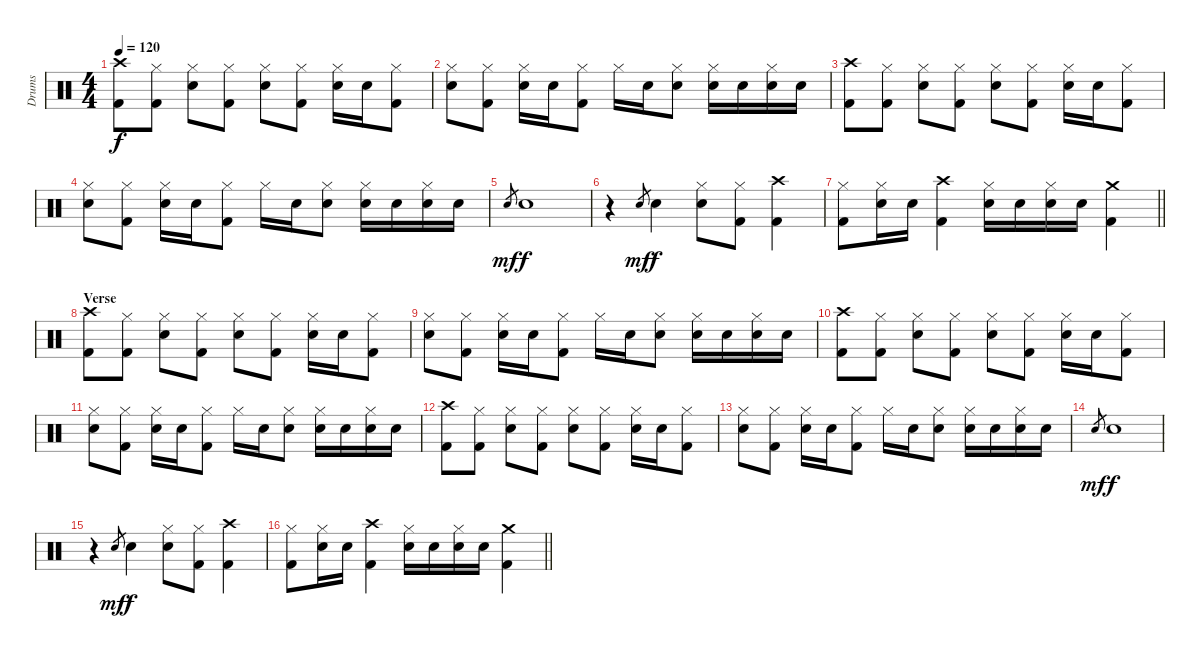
\track ("Drums" "Drums") {instrument percussion}
\staff {score}
\articulation defaults
\ts (4 4)
\tempo 120
\clef neutral
\ks c
("Crash high (hit)" "Kick (hit) 2").8{dy f} ("Hi-Hat (closed)" "Kick (hit) 2").8 ("Hi-Hat (closed)" "Electric Snare (hit)").8 ("Hi-Hat (closed)" "Kick (hit) 2").8 ("Hi-Hat (closed)" "Electric Snare (hit)").8 ("Hi-Hat (closed)" "Kick (hit) 2").8 ("Hi-Hat (closed)" "Electric Snare (hit)").16 "Electric Snare (hit)".16 ("Hi-Hat (closed)" "Kick (hit) 2").8 |
("Hi-Hat (closed)" "Electric Snare (hit)").8 ("Hi-Hat (closed)" "Kick (hit) 2").8 ("Hi-Hat (closed)" "Electric Snare (hit)").16 "Electric Snare (hit)".16 ("Hi-Hat (closed)" "Kick (hit) 2").8 "Hi-Hat (closed)".16 "Electric Snare (hit)".16 ("Hi-Hat (closed)" "Electric Snare (hit)").8 ("Hi-Hat (closed)" "Electric Snare (hit)").16 "Electric Snare (hit)".16 ("Hi-Hat (closed)" "Electric Snare (hit)").16 "Electric Snare (hit)".16 |
("Crash high (hit)" "Kick (hit) 2").8 ("Hi-Hat (closed)" "Kick (hit) 2").8 ("Hi-Hat (closed)" "Electric Snare (hit)").8 ("Hi-Hat (closed)" "Kick (hit) 2").8 ("Hi-Hat (closed)" "Electric Snare (hit)").8 ("Hi-Hat (closed)" "Kick (hit) 2").8 ("Hi-Hat (closed)" "Electric Snare (hit)").16 "Electric Snare (hit)".16 ("Hi-Hat (closed)" "Kick (hit) 2").8 |
("Hi-Hat (closed)" "Electric Snare (hit)").8 ("Hi-Hat (closed)" "Kick (hit) 2").8 ("Hi-Hat (closed)" "Electric Snare (hit)").16 "Electric Snare (hit)".16 ("Hi-Hat (closed)" "Kick (hit) 2").8 "Hi-Hat (closed)".16 "Electric Snare (hit)".16 ("Hi-Hat (closed)" "Electric Snare (hit)").8 ("Hi-Hat (closed)" "Electric Snare (hit)").16 "Electric Snare (hit)".16 ("Hi-Hat (closed)" "Electric Snare (hit)").16 "Electric Snare (hit)".16 |
"Electric Snare (hit)".8{gr dy mf} "Electric Snare (hit)".1{dy f} |
r.4 "Electric Snare (hit)".8{gr dy mf} "Electric Snare (hit)".4{dy f} ("Hi-Hat (closed)" "Electric Snare (hit)").8 ("Hi-Hat (closed)" "Kick (hit) 2").8 ("Crash high (hit)" "Kick (hit) 2").4 |
\barLineRight lightlight
("Hi-Hat (closed)" "Kick (hit) 2").8 ("Hi-Hat (closed)" "Electric Snare (hit)").16 "Electric Snare (hit)".16 ("Crash high (hit)" "Kick (hit) 2").4 ("Hi-Hat (closed)" "Electric Snare (hit)").16 "Electric Snare (hit)".16 ("Hi-Hat (closed)" "Electric Snare (hit)").16 "Electric Snare (hit)".16 ("Crash medium (hit)" "Kick (hit) 2").4 |
\section ("" "Verse")
("Crash high (hit)" "Kick (hit) 2").8 ("Hi-Hat (closed)" "Kick (hit) 2").8 ("Hi-Hat (closed)" "Electric Snare (hit)").8 ("Hi-Hat (closed)" "Kick (hit) 2").8 ("Hi-Hat (closed)" "Electric Snare (hit)").8 ("Hi-Hat (closed)" "Kick (hit) 2").8 ("Hi-Hat (closed)" "Electric Snare (hit)").16 "Electric Snare (hit)".16 ("Hi-Hat (closed)" "Kick (hit) 2").8 |
("Hi-Hat (closed)" "Electric Snare (hit)").8 ("Hi-Hat (closed)" "Kick (hit) 2").8 ("Hi-Hat (closed)" "Electric Snare (hit)").16 "Electric Snare (hit)".16 ("Hi-Hat (closed)" "Kick (hit) 2").8 "Hi-Hat (closed)".16 "Electric Snare (hit)".16 ("Hi-Hat (closed)" "Electric Snare (hit)").8 ("Hi-Hat (closed)" "Electric Snare (hit)").16 "Electric Snare (hit)".16 ("Hi-Hat (closed)" "Electric Snare (hit)").16 "Electric Snare (hit)".16 |
("Crash high (hit)" "Kick (hit) 2").8 ("Hi-Hat (closed)" "Kick (hit) 2").8 ("Hi-Hat (closed)" "Electric Snare (hit)").8 ("Hi-Hat (closed)" "Kick (hit) 2").8 ("Hi-Hat (closed)" "Electric Snare (hit)").8 ("Hi-Hat (closed)" "Kick (hit) 2").8 ("Hi-Hat (closed)" "Electric Snare (hit)").16 "Electric Snare (hit)".16 ("Hi-Hat (closed)" "Kick (hit) 2").8 |
("Hi-Hat (closed)" "Electric Snare (hit)").8 ("Hi-Hat (closed)" "Kick (hit) 2").8 ("Hi-Hat (closed)" "Electric Snare (hit)").16 "Electric Snare (hit)".16 ("Hi-Hat (closed)" "Kick (hit) 2").8 "Hi-Hat (closed)".16 "Electric Snare (hit)".16 ("Hi-Hat (closed)" "Electric Snare (hit)").8 ("Hi-Hat (closed)" "Electric Snare (hit)").16 "Electric Snare (hit)".16 ("Hi-Hat (closed)" "Electric Snare (hit)").16 "Electric Snare (hit)".16 |
("Crash high (hit)" "Kick (hit) 2").8 ("Hi-Hat (closed)" "Kick (hit) 2").8 ("Hi-Hat (closed)" "Electric Snare (hit)").8 ("Hi-Hat (closed)" "Kick (hit) 2").8 ("Hi-Hat (closed)" "Electric Snare (hit)").8 ("Hi-Hat (closed)" "Kick (hit) 2").8 ("Hi-Hat (closed)" "Electric Snare (hit)").16 "Electric Snare (hit)".16 ("Hi-Hat (closed)" "Kick (hit) 2").8 |
("Hi-Hat (closed)" "Electric Snare (hit)").8 ("Hi-Hat (closed)" "Kick (hit) 2").8 ("Hi-Hat (closed)" "Electric Snare (hit)").16 "Electric Snare (hit)".16 ("Hi-Hat (closed)" "Kick (hit) 2").8 "Hi-Hat (closed)".16 "Electric Snare (hit)".16 ("Hi-Hat (closed)" "Electric Snare (hit)").8 ("Hi-Hat (closed)" "Electric Snare (hit)").16 "Electric Snare (hit)".16 ("Hi-Hat (closed)" "Electric Snare (hit)").16 "Electric Snare (hit)".16 |
"Electric Snare (hit)".8{gr dy mf} "Electric Snare (hit)".1{dy f} |
r.4 "Electric Snare (hit)".8{gr dy mf} "Electric Snare (hit)".4{dy f} ("Hi-Hat (closed)" "Electric Snare (hit)").8 ("Hi-Hat (closed)" "Kick (hit) 2").8 ("Crash high (hit)" "Kick (hit) 2").4 |
\barLineRight lightlight
("Hi-Hat (closed)" "Kick (hit) 2").8 ("Hi-Hat (closed)" "Electric Snare (hit)").16 "Electric Snare (hit)".16 ("Crash high (hit)" "Kick (hit) 2").4 ("Hi-Hat (closed)" "Electric Snare (hit)").16 "Electric Snare (hit)".16 ("Hi-Hat (closed)" "Electric Snare (hit)").16 "Electric Snare (hit)".16 ("Crash medium (hit)" "Kick (hit) 2").4
